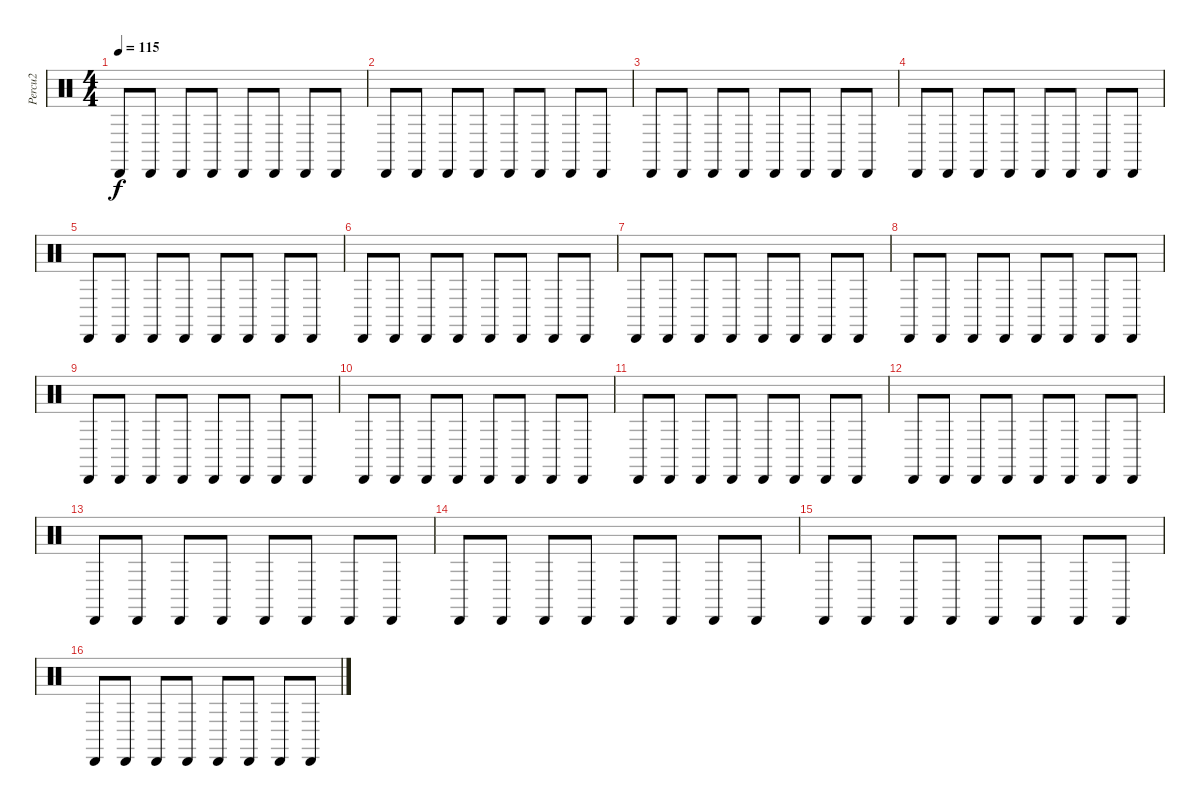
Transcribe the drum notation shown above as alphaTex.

\track ("Percu2" "Percu2") {instrument percussion}
\staff {score}
\articulation defaults
\ts (4 4)
\tempo 115
\clef neutral
\ks c "Cabasa (hit)".8{dy f} "Cabasa (hit)".8 "Cabasa (hit)".8 "Cabasa (hit)".8 "Cabasa (hit)".8 "Cabasa (hit)".8 "Cabasa (hit)".8 "Cabasa (hit)".8
|
"Cabasa (hit)".8 "Cabasa (hit)".8 "Cabasa (hit)".8 "Cabasa (hit)".8 "Cabasa (hit)".8 "Cabasa (hit)".8 "Cabasa (hit)".8 "Cabasa (hit)".8 |
"Cabasa (hit)".8 "Cabasa (hit)".8 "Cabasa (hit)".8 "Cabasa (hit)".8 "Cabasa (hit)".8 "Cabasa (hit)".8 "Cabasa (hit)".8 "Cabasa (hit)".8 |
"Cabasa (hit)".8 "Cabasa (hit)".8 "Cabasa (hit)".8 "Cabasa (hit)".8 "Cabasa (hit)".8 "Cabasa (hit)".8 "Cabasa (hit)".8 "Cabasa (hit)".8 |
"Cabasa (hit)".8 "Cabasa (hit)".8 "Cabasa (hit)".8 "Cabasa (hit)".8 "Cabasa (hit)".8 "Cabasa (hit)".8 "Cabasa (hit)".8 "Cabasa (hit)".8 |
"Cabasa (hit)".8 "Cabasa (hit)".8 "Cabasa (hit)".8 "Cabasa (hit)".8 "Cabasa (hit)".8 "Cabasa (hit)".8 "Cabasa (hit)".8 "Cabasa (hit)".8 |
"Cabasa (hit)".8 "Cabasa (hit)".8 "Cabasa (hit)".8 "Cabasa (hit)".8 "Cabasa (hit)".8 "Cabasa (hit)".8 "Cabasa (hit)".8 "Cabasa (hit)".8 |
"Cabasa (hit)".8 "Cabasa (hit)".8 "Cabasa (hit)".8 "Cabasa (hit)".8 "Cabasa (hit)".8 "Cabasa (hit)".8 "Cabasa (hit)".8 "Cabasa (hit)".8 |
"Cabasa (hit)".8 "Cabasa (hit)".8 "Cabasa (hit)".8 "Cabasa (hit)".8 "Cabasa (hit)".8 "Cabasa (hit)".8 "Cabasa (hit)".8 "Cabasa (hit)".8 |
"Cabasa (hit)".8 "Cabasa (hit)".8 "Cabasa (hit)".8 "Cabasa (hit)".8 "Cabasa (hit)".8 "Cabasa (hit)".8 "Cabasa (hit)".8 "Cabasa (hit)".8 |
"Cabasa (hit)".8 "Cabasa (hit)".8 "Cabasa (hit)".8 "Cabasa (hit)".8 "Cabasa (hit)".8 "Cabasa (hit)".8 "Cabasa (hit)".8 "Cabasa (hit)".8 |
"Cabasa (hit)".8 "Cabasa (hit)".8 "Cabasa (hit)".8 "Cabasa (hit)".8 "Cabasa (hit)".8 "Cabasa (hit)".8 "Cabasa (hit)".8 "Cabasa (hit)".8 |
"Cabasa (hit)".8 "Cabasa (hit)".8 "Cabasa (hit)".8 "Cabasa (hit)".8 "Cabasa (hit)".8 "Cabasa (hit)".8 "Cabasa (hit)".8 "Cabasa (hit)".8 |
"Cabasa (hit)".8 "Cabasa (hit)".8 "Cabasa (hit)".8 "Cabasa (hit)".8 "Cabasa (hit)".8 "Cabasa (hit)".8 "Cabasa (hit)".8 "Cabasa (hit)".8 |
"Cabasa (hit)".8 "Cabasa (hit)".8 "Cabasa (hit)".8 "Cabasa (hit)".8 "Cabasa (hit)".8 "Cabasa (hit)".8 "Cabasa (hit)".8 "Cabasa (hit)".8 |
"Cabasa (hit)".8 "Cabasa (hit)".8 "Cabasa (hit)".8 "Cabasa (hit)".8 "Cabasa (hit)".8 "Cabasa (hit)".8 "Cabasa (hit)".8 "Cabasa (hit)".8
